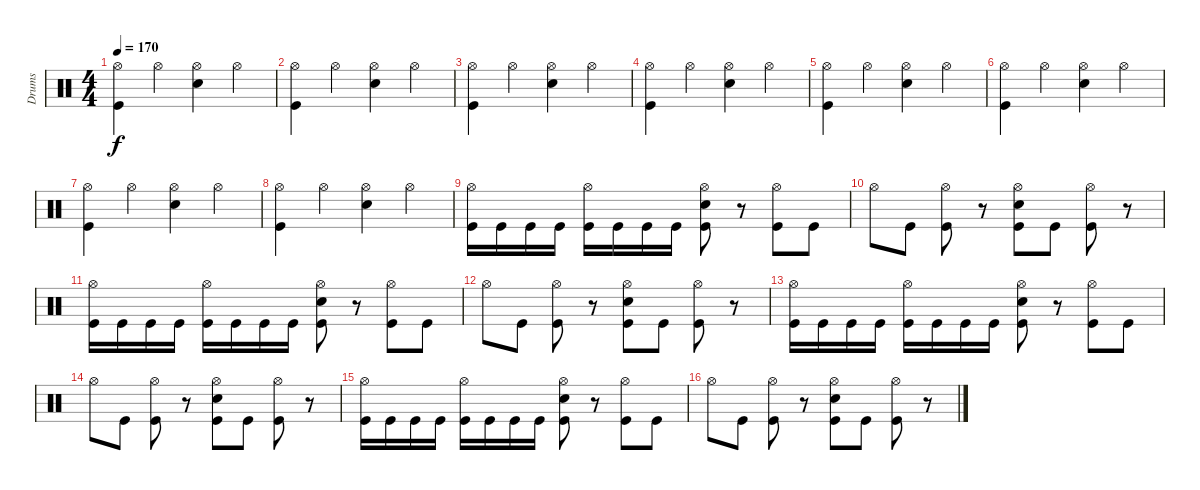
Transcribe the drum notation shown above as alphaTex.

\track ("Drums" "Drums") {instrument percussion}
\staff {score}
\articulation defaults
\ts (4 4)
\tempo 170
\clef neutral
\ks c
("Hi-Hat (open)" "Kick (hit)").4{dy f} "Hi-Hat (open)".4 ("Hi-Hat (open)" "Snare (hit) 2").4 "Hi-Hat (open)".4 |
("Hi-Hat (open)" "Kick (hit)").4 "Hi-Hat (open)".4 ("Hi-Hat (open)" "Snare (hit) 2").4 "Hi-Hat (open)".4 |
("Hi-Hat (open)" "Kick (hit)").4 "Hi-Hat (open)".4 ("Hi-Hat (open)" "Snare (hit) 2").4 "Hi-Hat (open)".4 |
("Hi-Hat (open)" "Kick (hit)").4 "Hi-Hat (open)".4 ("Hi-Hat (open)" "Snare (hit) 2").4 "Hi-Hat (open)".4 |
("Hi-Hat (open)" "Kick (hit)").4 "Hi-Hat (open)".4 ("Hi-Hat (open)" "Snare (hit) 2").4 "Hi-Hat (open)".4 |
("Hi-Hat (open)" "Kick (hit)").4 "Hi-Hat (open)".4 ("Hi-Hat (open)" "Snare (hit) 2").4 "Hi-Hat (open)".4 |
("Hi-Hat (open)" "Kick (hit)").4 "Hi-Hat (open)".4 ("Hi-Hat (open)" "Snare (hit) 2").4 "Hi-Hat (open)".4 |
("Hi-Hat (open)" "Kick (hit)").4 "Hi-Hat (open)".4 ("Hi-Hat (open)" "Snare (hit) 2").4 "Hi-Hat (open)".4 |
("Kick (hit)" "Hi-Hat (open)").16 "Kick (hit)".16 "Kick (hit)".16 "Kick (hit)".16 ("Kick (hit)" "Hi-Hat (open)").16 "Kick (hit)".16 "Kick (hit)".16 "Kick (hit)".16 ("Kick (hit)" "Hi-Hat (open)" "Snare (hit) 2").8 r.8 ("Kick (hit)" "Hi-Hat (open)").8 "Kick (hit)".8 |
"Hi-Hat (open)".8 "Kick (hit)".8 ("Kick (hit)" "Hi-Hat (open)").8 r.8 ("Kick (hit)" "Hi-Hat (open)" "Snare (hit) 2").8 "Kick (hit)".8 ("Kick (hit)" "Hi-Hat (open)").8 r.8 |
("Kick (hit)" "Hi-Hat (open)").16 "Kick (hit)".16 "Kick (hit)".16 "Kick (hit)".16 ("Kick (hit)" "Hi-Hat (open)").16 "Kick (hit)".16 "Kick (hit)".16 "Kick (hit)".16 ("Kick (hit)" "Hi-Hat (open)" "Snare (hit) 2").8 r.8 ("Kick (hit)" "Hi-Hat (open)").8 "Kick (hit)".8 |
"Hi-Hat (open)".8 "Kick (hit)".8 ("Kick (hit)" "Hi-Hat (open)").8 r.8 ("Kick (hit)" "Hi-Hat (open)" "Snare (hit) 2").8 "Kick (hit)".8 ("Kick (hit)" "Hi-Hat (open)").8 r.8 |
("Kick (hit)" "Hi-Hat (open)").16 "Kick (hit)".16 "Kick (hit)".16 "Kick (hit)".16 ("Kick (hit)" "Hi-Hat (open)").16 "Kick (hit)".16 "Kick (hit)".16 "Kick (hit)".16 ("Kick (hit)" "Hi-Hat (open)" "Snare (hit) 2").8 r.8 ("Kick (hit)" "Hi-Hat (open)").8 "Kick (hit)".8 |
"Hi-Hat (open)".8 "Kick (hit)".8 ("Kick (hit)" "Hi-Hat (open)").8 r.8 ("Kick (hit)" "Hi-Hat (open)" "Snare (hit) 2").8 "Kick (hit)".8 ("Kick (hit)" "Hi-Hat (open)").8 r.8 |
("Kick (hit)" "Hi-Hat (open)").16 "Kick (hit)".16 "Kick (hit)".16 "Kick (hit)".16 ("Kick (hit)" "Hi-Hat (open)").16 "Kick (hit)".16 "Kick (hit)".16 "Kick (hit)".16 ("Kick (hit)" "Hi-Hat (open)" "Snare (hit) 2").8 r.8 ("Kick (hit)" "Hi-Hat (open)").8 "Kick (hit)".8 |
"Hi-Hat (open)".8 "Kick (hit)".8 ("Kick (hit)" "Hi-Hat (open)").8 r.8 ("Kick (hit)" "Hi-Hat (open)" "Snare (hit) 2").8 "Kick (hit)".8 ("Kick (hit)" "Hi-Hat (open)").8 r.8
